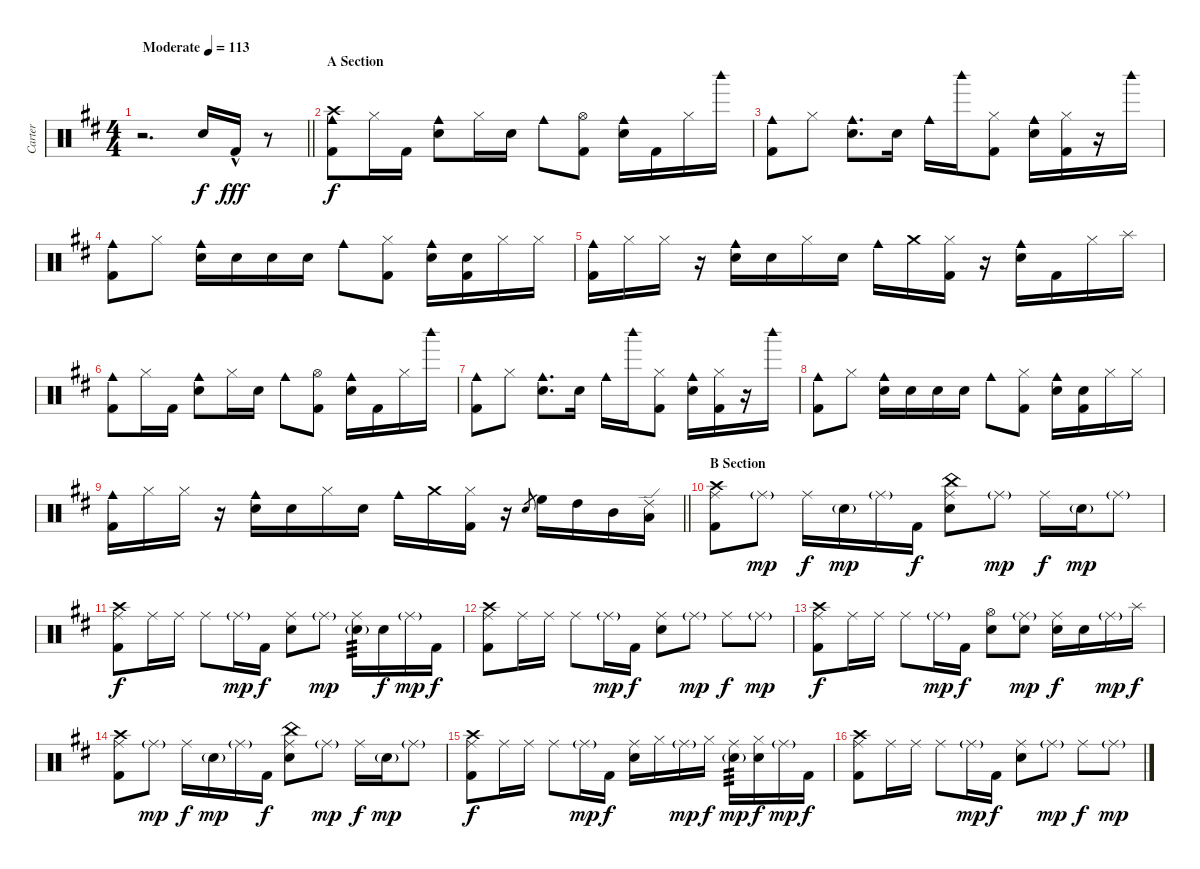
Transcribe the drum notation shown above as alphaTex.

\track ("Carter" "Carter") {instrument percussion}
\staff {score}
\articulation defaults
\ts (4 4)
\tempo (113 "Moderate")
\clef neutral
\barLineRight lightlight
\ks d
r.2{d dy f} "Electric Snare (hit)".16 "Kick (hit) 2"{hac}.16{dy fff} r.8 |
\section ("" "A Section")
("Crash high (hit)" "Cowbell medium (hit)" "Kick (hit) 2").8{dy f} "Hi-Hat (closed)".16 "Kick (hit) 2".16 ("Cowbell medium (hit)" "Electric Snare (hit)").8 "Hi-Hat (closed)".16 "Electric Snare (hit)".16 "Cowbell medium (hit)".8 ("Hi-Hat (open)" "Kick (hit) 2").8 ("Cowbell medium (hit)" "Electric Snare (hit)").16 "Kick (hit) 2".16 "Hi-Hat (closed)".16 "Woodblock high (hit)".16 |
("Cowbell medium (hit)" "Kick (hit) 2").8 "Hi-Hat (closed)".8 ("Cowbell medium (hit)" "Electric Snare (hit)").8{d} "Electric Snare (hit)".16 "Cowbell medium (hit)".16 "Woodblock high (hit)".16 ("Hi-Hat (closed)" "Kick (hit) 2").8 ("Cowbell medium (hit)" "Electric Snare (hit)").16 ("Hi-Hat (closed)" "Kick (hit) 2").16 r.16 "Woodblock high (hit)".16 |
("Cowbell medium (hit)" "Kick (hit) 2").8 "Hi-Hat (closed)".8 ("Cowbell medium (hit)" "Electric Snare (hit)").16 "Electric Snare (hit)".16 "Electric Snare (hit)".16 "Electric Snare (hit)".16 "Cowbell medium (hit)".8 ("Hi-Hat (closed)" "Kick (hit) 2").8 ("Cowbell medium (hit)" "Electric Snare (hit)").16 ("Electric Snare (hit)" "Kick (hit) 2").16 "Hi-Hat (closed)".16 "Hi-Hat (closed)".16 |
("Cowbell medium (hit)" "Kick (hit) 2").16 "Hi-Hat (closed)".16 "Hi-Hat (closed)".16 r.16 ("Cowbell medium (hit)" "Electric Snare (hit)").16 "Electric Snare (hit)".16 "Hi-Hat (closed)".16 "Electric Snare (hit)".16 "Cowbell medium (hit)".16 "Crash medium (hit)".16 ("Hi-Hat (closed)" "Kick (hit) 2").16 r.16 ("Cowbell medium (hit)" "Electric Snare (hit)").16 "Kick (hit) 2".16 "Hi-Hat (closed)".16 "Splash (hit)".16 |
("Cowbell medium (hit)" "Kick (hit) 2").8 "Hi-Hat (closed)".16 "Kick (hit) 2".16 ("Cowbell medium (hit)" "Electric Snare (hit)").8 "Hi-Hat (closed)".16 "Electric Snare (hit)".16 "Cowbell medium (hit)".8 ("Hi-Hat (open)" "Kick (hit) 2").8 ("Cowbell medium (hit)" "Electric Snare (hit)").16 "Kick (hit) 2".16 "Hi-Hat (closed)".16 "Woodblock high (hit)".16 |
("Cowbell medium (hit)" "Kick (hit) 2").8 "Hi-Hat (closed)".8 ("Cowbell medium (hit)" "Electric Snare (hit)").8{d} "Electric Snare (hit)".16 "Cowbell medium (hit)".16 "Woodblock high (hit)".16 ("Hi-Hat (closed)" "Kick (hit) 2").8 ("Cowbell medium (hit)" "Electric Snare (hit)").16 ("Hi-Hat (closed)" "Kick (hit) 2").16 r.16 "Woodblock high (hit)".16 |
("Cowbell medium (hit)" "Kick (hit) 2").8 "Hi-Hat (closed)".8 ("Cowbell medium (hit)" "Electric Snare (hit)").16 "Electric Snare (hit)".16 "Electric Snare (hit)".16 "Electric Snare (hit)".16 "Cowbell medium (hit)".8 ("Hi-Hat (closed)" "Kick (hit) 2").8 ("Cowbell medium (hit)" "Electric Snare (hit)").16 ("Electric Snare (hit)" "Kick (hit) 2").16 "Hi-Hat (closed)".16 "Hi-Hat (closed)".16 |
\barLineRight lightlight
("Cowbell medium (hit)" "Kick (hit) 2").16 "Hi-Hat (closed)".16 "Hi-Hat (closed)".16 r.16 ("Cowbell medium (hit)" "Electric Snare (hit)").16 "Electric Snare (hit)".16 "Hi-Hat (closed)".16 "Electric Snare (hit)".16 "Cowbell medium (hit)".16 "Crash medium (hit)".16 ("Hi-Hat (closed)" "Kick (hit) 2").16 r.16 "Electric Snare (hit)".8{gr} "High Floor Tom (hit)".16 "High Tom (hit)".16 "Mid Tom (hit)".16 ("Ride (edge) 2" "Low Tom (hit)").16 |
\section ("" "B Section")
("Crash high (hit)" "Ride (middle)" "Kick (hit) 2").8 "Ride (middle)"{g}.8{dy mp} "Ride (middle)".16{dy f} "Electric Snare (hit)"{g}.16{dy mp} "Ride (middle)"{g}.16 "Kick (hit) 2".16{dy f} ("China (hit)" "Ride (middle)" "Electric Snare (hit)").8 "Ride (middle)"{g}.8{dy mp} "Ride (middle)".16{dy f} "Electric Snare (hit)"{g}.16{dy mp} "Ride (middle)"{g}.8 |
("Crash high (hit)" "Ride (middle)" "Kick (hit) 2").8{dy f} "Ride (middle)".16 "Ride (middle)".16 "Ride (middle)".8 "Ride (middle)"{g}.16{dy mp} "Kick (hit) 2".16{dy f} ("Ride (middle)" "Electric Snare (hit)").8 "Ride (middle)"{g}.8{dy mp} ("Ride (middle)" "Electric Snare (hit)"{g}).16{tp 3} "Electric Snare (hit)".16{dy f} "Ride (middle)"{g}.16{dy mp} "Kick (hit) 2".16{dy f} |
("Crash high (hit)" "Ride (middle)" "Kick (hit) 2").8 "Ride (middle)".16 "Ride (middle)".16 "Ride (middle)".8 "Ride (middle)"{g}.16{dy mp} "Kick (hit) 2".16{dy f} ("Ride (middle)" "Electric Snare (hit)").8 "Ride (middle)"{g}.8{dy mp} "Ride (middle)".8{dy f} "Ride (middle)"{g}.8{dy mp} |
("Crash high (hit)" "Ride (middle)" "Kick (hit) 2").8{dy f} "Ride (middle)".16 "Ride (middle)".16 "Ride (middle)".8 "Ride (middle)"{g}.16{dy mp} "Kick (hit) 2".16{dy f} ("Hi-Hat (open)" "Electric Snare (hit)").8 ("Ride (middle)"{g} "Electric Snare (hit)").8{dy mp} ("Ride (middle)" "Electric Snare (hit)").16{dy f} "Electric Snare (hit)".16 "Ride (middle)"{g}.16{dy mp} "Splash (hit)".16{dy f} |
("Crash high (hit)" "Ride (middle)" "Kick (hit) 2").8 "Ride (middle)"{g}.8{dy mp} "Ride (middle)".16{dy f} "Electric Snare (hit)"{g}.16{dy mp} "Ride (middle)"{g}.16 "Kick (hit) 2".16{dy f} ("China (hit)" "Ride (middle)" "Electric Snare (hit)").8 "Ride (middle)"{g}.8{dy mp} "Ride (middle)".16{dy f} "Electric Snare (hit)"{g}.16{dy mp} "Ride (middle)"{g}.8 |
("Crash high (hit)" "Ride (middle)" "Kick (hit) 2").8{dy f} "Ride (middle)".16 "Ride (middle)".16 "Ride (middle)".8 "Ride (middle)"{g}.16{dy mp} "Kick (hit) 2".16{dy f} ("Ride (middle)" "Electric Snare (hit)").16 "Hi-Hat (closed)".16 "Ride (middle)"{g}.16{dy mp} "Hi-Hat (closed)".16{dy f} ("Ride (middle)" "Electric Snare (hit)"{g}).16{tp 3 dy mp} ("Hi-Hat (closed)" "Electric Snare (hit)").16{dy f} "Ride (middle)"{g}.16{dy mp} "Kick (hit) 2".16{dy f} |
("Crash high (hit)" "Ride (middle)" "Kick (hit) 2").8 "Ride (middle)".16 "Ride (middle)".16 "Ride (middle)".8 "Ride (middle)"{g}.16{dy mp} "Kick (hit) 2".16{dy f} ("Ride (middle)" "Electric Snare (hit)").8 "Ride (middle)"{g}.8{dy mp} "Ride (middle)".8{dy f} "Ride (middle)"{g}.8{dy mp}
